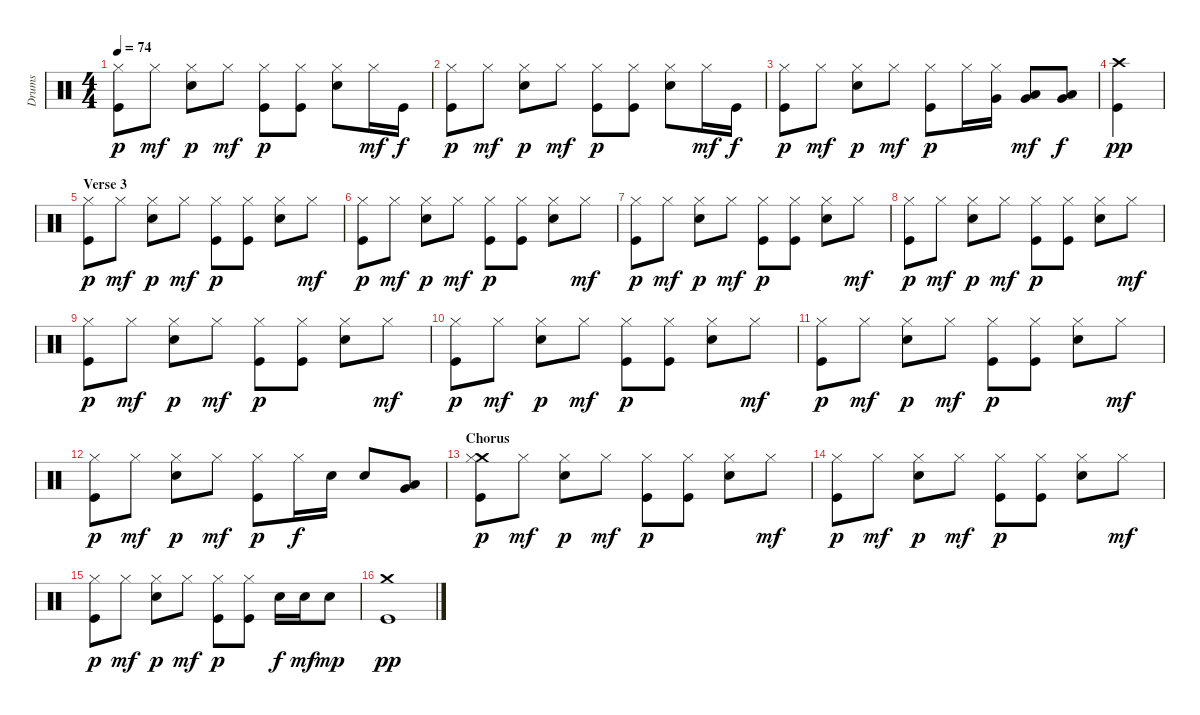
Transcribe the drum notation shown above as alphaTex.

\track ("Drums" "Drums") {instrument percussion}
\staff {score}
\articulation defaults
\ts (4 4)
\tempo 74
\clef neutral
\ks c
("Hi-Hat (closed)" "Kick (hit)").8{dy p} "Hi-Hat (closed)".8{dy mf} ("Hi-Hat (closed)" "Electric Snare (hit)").8{dy p} "Hi-Hat (closed)".8{dy mf} ("Hi-Hat (closed)" "Kick (hit)").8{dy p} ("Hi-Hat (closed)" "Kick (hit)").8 ("Hi-Hat (closed)" "Electric Snare (hit)").8 "Hi-Hat (closed)".16{dy mf} "Kick (hit)".16{dy f} |
("Hi-Hat (closed)" "Kick (hit)").8{dy p} "Hi-Hat (closed)".8{dy mf} ("Hi-Hat (closed)" "Electric Snare (hit)").8{dy p} "Hi-Hat (closed)".8{dy mf} ("Hi-Hat (closed)" "Kick (hit)").8{dy p} ("Hi-Hat (closed)" "Kick (hit)").8 ("Hi-Hat (closed)" "Electric Snare (hit)").8 "Hi-Hat (closed)".16{dy mf} "Kick (hit)".16{dy f} |
("Hi-Hat (closed)" "Kick (hit)").8{dy p} "Hi-Hat (closed)".8{dy mf} ("Hi-Hat (closed)" "Electric Snare (hit)").8{dy p} "Hi-Hat (closed)".8{dy mf} ("Hi-Hat (closed)" "Kick (hit)").8{dy p} "Hi-Hat (closed)".16 ("Hi-Hat (closed)" "Very Low Tom (hit)").16 ("Very Low Tom (hit)" "Low Floor Tom (hit)").8{dy mf} ("Very Low Tom (hit)" "Low Floor Tom (hit)").8{dy f} |
("Crash high (hit)" "Kick (hit)").4{dy pp} |
\section ("" "Verse 3")
("Hi-Hat (closed)" "Kick (hit)").8{dy p} "Hi-Hat (closed)".8{dy mf} ("Hi-Hat (closed)" "Electric Snare (hit)").8{dy p} "Hi-Hat (closed)".8{dy mf} ("Hi-Hat (closed)" "Kick (hit)").8{dy p} ("Hi-Hat (closed)" "Kick (hit)").8 ("Hi-Hat (closed)" "Electric Snare (hit)").8 "Hi-Hat (closed)".8{dy mf} |
("Hi-Hat (closed)" "Kick (hit)").8{dy p} "Hi-Hat (closed)".8{dy mf} ("Hi-Hat (closed)" "Electric Snare (hit)").8{dy p} "Hi-Hat (closed)".8{dy mf} ("Hi-Hat (closed)" "Kick (hit)").8{dy p} ("Hi-Hat (closed)" "Kick (hit)").8 ("Hi-Hat (closed)" "Electric Snare (hit)").8 "Hi-Hat (closed)".8{dy mf} |
("Hi-Hat (closed)" "Kick (hit)").8{dy p} "Hi-Hat (closed)".8{dy mf} ("Hi-Hat (closed)" "Electric Snare (hit)").8{dy p} "Hi-Hat (closed)".8{dy mf} ("Hi-Hat (closed)" "Kick (hit)").8{dy p} ("Hi-Hat (closed)" "Kick (hit)").8 ("Hi-Hat (closed)" "Electric Snare (hit)").8 "Hi-Hat (closed)".8{dy mf} |
("Hi-Hat (closed)" "Kick (hit)").8{dy p} "Hi-Hat (closed)".8{dy mf} ("Hi-Hat (closed)" "Electric Snare (hit)").8{dy p} "Hi-Hat (closed)".8{dy mf} ("Hi-Hat (closed)" "Kick (hit)").8{dy p} ("Hi-Hat (closed)" "Kick (hit)").8 ("Hi-Hat (closed)" "Electric Snare (hit)").8 "Hi-Hat (closed)".8{dy mf} |
("Hi-Hat (closed)" "Kick (hit)").8{dy p} "Hi-Hat (closed)".8{dy mf} ("Hi-Hat (closed)" "Electric Snare (hit)").8{dy p} "Hi-Hat (closed)".8{dy mf} ("Hi-Hat (closed)" "Kick (hit)").8{dy p} ("Hi-Hat (closed)" "Kick (hit)").8 ("Hi-Hat (closed)" "Electric Snare (hit)").8 "Hi-Hat (closed)".8{dy mf} |
("Hi-Hat (closed)" "Kick (hit)").8{dy p} "Hi-Hat (closed)".8{dy mf} ("Hi-Hat (closed)" "Electric Snare (hit)").8{dy p} "Hi-Hat (closed)".8{dy mf} ("Hi-Hat (closed)" "Kick (hit)").8{dy p} ("Hi-Hat (closed)" "Kick (hit)").8 ("Hi-Hat (closed)" "Electric Snare (hit)").8 "Hi-Hat (closed)".8{dy mf} |
("Hi-Hat (closed)" "Kick (hit)").8{dy p} "Hi-Hat (closed)".8{dy mf} ("Hi-Hat (closed)" "Electric Snare (hit)").8{dy p} "Hi-Hat (closed)".8{dy mf} ("Hi-Hat (closed)" "Kick (hit)").8{dy p} ("Hi-Hat (closed)" "Kick (hit)").8 ("Hi-Hat (closed)" "Electric Snare (hit)").8 "Hi-Hat (closed)".8{dy mf} |
("Hi-Hat (closed)" "Kick (hit)").8{dy p} "Hi-Hat (closed)".8{dy mf} ("Hi-Hat (closed)" "Electric Snare (hit)").8{dy p} "Hi-Hat (closed)".8{dy mf} ("Hi-Hat (closed)" "Kick (hit)").8{dy p} "Hi-Hat (closed)".16{dy f} "Electric Snare (hit)".16 "Electric Snare (hit)".8 ("Low Floor Tom (hit)" "Very Low Tom (hit)").8 |
\section ("" "Chorus")
("Crash medium (hit)" "Hi-Hat (closed)" "Kick (hit)").8{dy p} "Hi-Hat (closed)".8{dy mf} ("Hi-Hat (closed)" "Electric Snare (hit)").8{dy p} "Hi-Hat (closed)".8{dy mf} ("Hi-Hat (closed)" "Kick (hit)").8{dy p} ("Hi-Hat (closed)" "Kick (hit)").8 ("Hi-Hat (closed)" "Electric Snare (hit)").8 "Hi-Hat (closed)".8{dy mf} |
("Hi-Hat (closed)" "Kick (hit)").8{dy p} "Hi-Hat (closed)".8{dy mf} ("Hi-Hat (closed)" "Electric Snare (hit)").8{dy p} "Hi-Hat (closed)".8{dy mf} ("Hi-Hat (closed)" "Kick (hit)").8{dy p} ("Hi-Hat (closed)" "Kick (hit)").8 ("Hi-Hat (closed)" "Electric Snare (hit)").8 "Hi-Hat (closed)".8{dy mf} |
("Hi-Hat (closed)" "Kick (hit)").8{dy p} "Hi-Hat (closed)".8{dy mf} ("Hi-Hat (closed)" "Electric Snare (hit)").8{dy p} "Hi-Hat (closed)".8{dy mf} ("Hi-Hat (closed)" "Kick (hit)").8{dy p} ("Hi-Hat (closed)" "Kick (hit)").8 "Electric Snare (hit)".16{dy f} "Electric Snare (hit)".16{dy mf} "Electric Snare (hit)".8{dy mp} |
("Crash medium (hit)" "Kick (hit)").1{dy pp}
